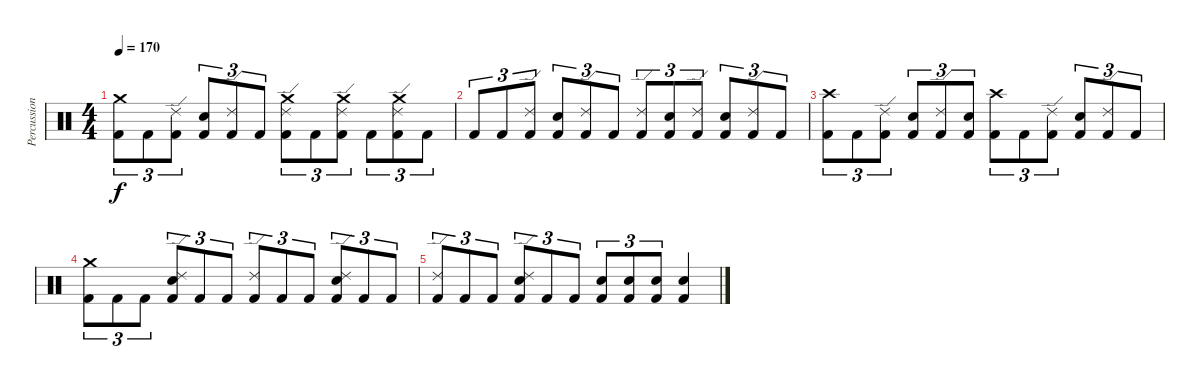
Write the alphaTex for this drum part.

\track ("Percussion" "Percussion") {instrument percussion}
\staff {score}
\articulation defaults
\ts (4 4)
\tempo 170
\clef neutral
\ks c
("Crash medium (hit)" "Kick (hit) 2").8{tu (3 2) dy f} "Kick (hit) 2".8{tu (3 2)} ("Ride (edge) 2" "Kick (hit) 2").8{tu (3 2)} ("Snare (hit) 2" "Kick (hit) 2").8{tu (3 2)} ("Ride (edge) 2" "Kick (hit) 2").8{tu (3 2)} "Kick (hit) 2".8{tu (3 2)} ("Crash medium (hit)" "Ride (edge) 2" "Kick (hit) 2").8{tu (3 2)} "Kick (hit) 2".8{tu (3 2)} ("Crash medium (hit)" "Ride (edge) 2" "Kick (hit) 2").8{tu (3 2)} "Kick (hit) 2".8{tu (3 2)} ("Crash medium (hit)" "Ride (edge) 2" "Kick (hit) 2").8{tu (3 2)} "Kick (hit) 2".8{tu (3 2)} |
"Kick (hit) 2".8{tu (3 2)} "Kick (hit) 2".8{tu (3 2)} ("Ride (edge) 2" "Kick (hit) 2").8{tu (3 2)} ("Snare (hit) 2" "Kick (hit) 2").8{tu (3 2)} ("Ride (edge) 2" "Kick (hit) 2").8{tu (3 2)} "Kick (hit) 2".8{tu (3 2)} ("Ride (edge) 2" "Kick (hit) 2").8{tu (3 2)} ("Snare (hit) 2" "Kick (hit) 2").8{tu (3 2)} ("Ride (edge) 2" "Kick (hit) 2").8{tu (3 2)} ("Snare (hit) 2" "Kick (hit) 2").8{tu (3 2)} ("Ride (edge) 2" "Kick (hit) 2").8{tu (3 2)} "Kick (hit) 2".8{tu (3 2)} |
("Crash high (hit)" "Kick (hit) 2").8{tu (3 2)} "Kick (hit) 2".8{tu (3 2)} ("Ride (edge) 2" "Kick (hit) 2").8{tu (3 2)} ("Snare (hit) 2" "Kick (hit) 2").8{tu (3 2)} ("Ride (edge) 2" "Kick (hit) 2").8{tu (3 2)} ("Snare (hit) 2" "Kick (hit) 2").8{tu (3 2)} ("Crash high (hit)" "Kick (hit) 2").8{tu (3 2)} "Kick (hit) 2".8{tu (3 2)} ("Ride (edge) 2" "Kick (hit) 2").8{tu (3 2)} ("Snare (hit) 2" "Kick (hit) 2").8{tu (3 2)} ("Ride (edge) 2" "Kick (hit) 2").8{tu (3 2)} "Kick (hit) 2".8{tu (3 2)} |
("Crash medium (hit)" "Kick (hit) 2").8{tu (3 2)} "Kick (hit) 2".8{tu (3 2)} "Kick (hit) 2".8{tu (3 2)} ("Ride (edge) 2" "Snare (hit) 2" "Kick (hit) 2").8{tu (3 2)} "Kick (hit) 2".8{tu (3 2)} "Kick (hit) 2".8{tu (3 2)} ("Ride (edge) 2" "Kick (hit) 2").8{tu (3 2)} "Kick (hit) 2".8{tu (3 2)} "Kick (hit) 2".8{tu (3 2)} ("Ride (edge) 2" "Snare (hit) 2" "Kick (hit) 2").8{tu (3 2)} "Kick (hit) 2".8{tu (3 2)} "Kick (hit) 2".8{tu (3 2)} |
("Ride (edge) 2" "Kick (hit) 2").8{tu (3 2)} "Kick (hit) 2".8{tu (3 2)} "Kick (hit) 2".8{tu (3 2)} ("Ride (edge) 2" "Snare (hit) 2" "Kick (hit) 2").8{tu (3 2)} "Kick (hit) 2".8{tu (3 2)} "Kick (hit) 2".8{tu (3 2)} ("Snare (hit) 2" "Kick (hit) 2").8{tu (3 2)} ("Snare (hit) 2" "Kick (hit) 2").8{tu (3 2)} ("Snare (hit) 2" "Kick (hit) 2").8{tu (3 2)} ("Snare (hit) 2" "Kick (hit) 2").4
